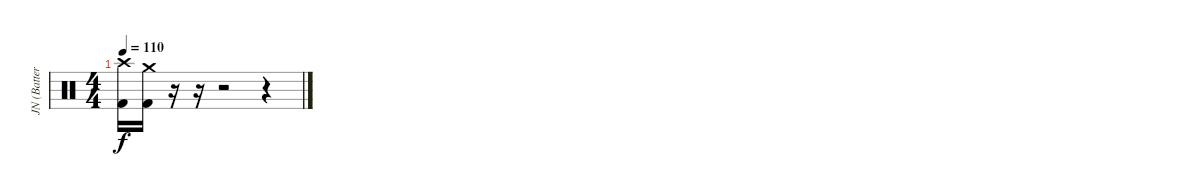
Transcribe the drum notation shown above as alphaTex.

\track ("JN (Batterie)" "JN (Batter") {instrument percussion}
\staff {score}
\articulation defaults
\ts (4 4)
\tempo 110
\clef neutral
\ks c
("Crash high (hit)" "Kick (hit) 2").16{dy f} ("Crash medium (hit)" "Kick (hit) 2").16 r.16 r.16 r.2 r.4
